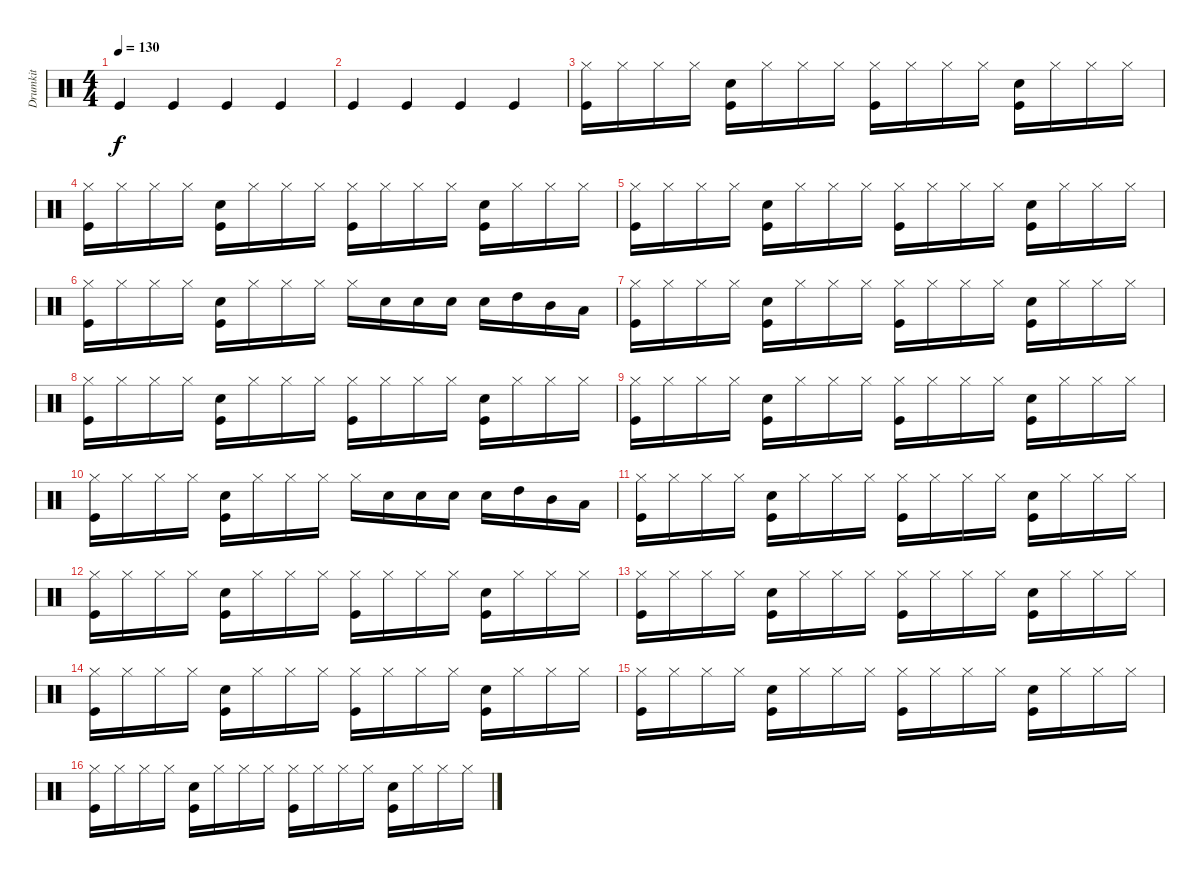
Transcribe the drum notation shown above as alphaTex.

\track ("Drumkit" "Drumkit") {instrument percussion}
\staff {score}
\articulation defaults
\ts (4 4)
\tempo 130
\clef neutral
\ks c "Kick (hit)".4{dy f} "Kick (hit)".4 "Kick (hit)".4 "Kick (hit)".4
|
"Kick (hit)".4 "Kick (hit)".4 "Kick (hit)".4 "Kick (hit)".4 |
("Hi-Hat (closed)" "Kick (hit)").16 "Hi-Hat (closed)".16 "Hi-Hat (closed)".16 "Hi-Hat (closed)".16 ("Snare (hit) 2" "Kick (hit)").16 "Hi-Hat (closed)".16 "Hi-Hat (closed)".16 "Hi-Hat (closed)".16 ("Hi-Hat (closed)" "Kick (hit)").16 "Hi-Hat (closed)".16 "Hi-Hat (closed)".16 "Hi-Hat (closed)".16 ("Snare (hit) 2" "Kick (hit)").16 "Hi-Hat (closed)".16 "Hi-Hat (closed)".16 "Hi-Hat (closed)".16 |
("Hi-Hat (closed)" "Kick (hit)").16 "Hi-Hat (closed)".16 "Hi-Hat (closed)".16 "Hi-Hat (closed)".16 ("Snare (hit) 2" "Kick (hit)").16 "Hi-Hat (closed)".16 "Hi-Hat (closed)".16 "Hi-Hat (closed)".16 ("Hi-Hat (closed)" "Kick (hit)").16 "Hi-Hat (closed)".16 "Hi-Hat (closed)".16 "Hi-Hat (closed)".16 ("Snare (hit) 2" "Kick (hit)").16 "Hi-Hat (closed)".16 "Hi-Hat (closed)".16 "Hi-Hat (closed)".16 |
("Hi-Hat (closed)" "Kick (hit)").16 "Hi-Hat (closed)".16 "Hi-Hat (closed)".16 "Hi-Hat (closed)".16 ("Snare (hit) 2" "Kick (hit)").16 "Hi-Hat (closed)".16 "Hi-Hat (closed)".16 "Hi-Hat (closed)".16 ("Hi-Hat (closed)" "Kick (hit)").16 "Hi-Hat (closed)".16 "Hi-Hat (closed)".16 "Hi-Hat (closed)".16 ("Snare (hit) 2" "Kick (hit)").16 "Hi-Hat (closed)".16 "Hi-Hat (closed)".16 "Hi-Hat (closed)".16 |
("Hi-Hat (closed)" "Kick (hit)").16 "Hi-Hat (closed)".16 "Hi-Hat (closed)".16 "Hi-Hat (closed)".16 ("Snare (hit) 2" "Kick (hit)").16 "Hi-Hat (closed)".16 "Hi-Hat (closed)".16 "Hi-Hat (closed)".16 "Hi-Hat (closed)".16 "Snare (hit) 2".16 "Snare (hit) 2".16 "Snare (hit) 2".16 "Snare (hit) 2".16 "High Tom (hit)".16 "Mid Tom (hit)".16 "Low Tom (hit)".16 |
("Hi-Hat (closed)" "Kick (hit)").16 "Hi-Hat (closed)".16 "Hi-Hat (closed)".16 "Hi-Hat (closed)".16 ("Snare (hit) 2" "Kick (hit)").16 "Hi-Hat (closed)".16 "Hi-Hat (closed)".16 "Hi-Hat (closed)".16 ("Hi-Hat (closed)" "Kick (hit)").16 "Hi-Hat (closed)".16 "Hi-Hat (closed)".16 "Hi-Hat (closed)".16 ("Snare (hit) 2" "Kick (hit)").16 "Hi-Hat (closed)".16 "Hi-Hat (closed)".16 "Hi-Hat (closed)".16 |
("Hi-Hat (closed)" "Kick (hit)").16 "Hi-Hat (closed)".16 "Hi-Hat (closed)".16 "Hi-Hat (closed)".16 ("Snare (hit) 2" "Kick (hit)").16 "Hi-Hat (closed)".16 "Hi-Hat (closed)".16 "Hi-Hat (closed)".16 ("Hi-Hat (closed)" "Kick (hit)").16 "Hi-Hat (closed)".16 "Hi-Hat (closed)".16 "Hi-Hat (closed)".16 ("Snare (hit) 2" "Kick (hit)").16 "Hi-Hat (closed)".16 "Hi-Hat (closed)".16 "Hi-Hat (closed)".16 |
("Hi-Hat (closed)" "Kick (hit)").16 "Hi-Hat (closed)".16 "Hi-Hat (closed)".16 "Hi-Hat (closed)".16 ("Snare (hit) 2" "Kick (hit)").16 "Hi-Hat (closed)".16 "Hi-Hat (closed)".16 "Hi-Hat (closed)".16 ("Hi-Hat (closed)" "Kick (hit)").16 "Hi-Hat (closed)".16 "Hi-Hat (closed)".16 "Hi-Hat (closed)".16 ("Snare (hit) 2" "Kick (hit)").16 "Hi-Hat (closed)".16 "Hi-Hat (closed)".16 "Hi-Hat (closed)".16 |
("Hi-Hat (closed)" "Kick (hit)").16 "Hi-Hat (closed)".16 "Hi-Hat (closed)".16 "Hi-Hat (closed)".16 ("Snare (hit) 2" "Kick (hit)").16 "Hi-Hat (closed)".16 "Hi-Hat (closed)".16 "Hi-Hat (closed)".16 "Hi-Hat (closed)".16 "Snare (hit) 2".16 "Snare (hit) 2".16 "Snare (hit) 2".16 "Snare (hit) 2".16 "High Tom (hit)".16 "Mid Tom (hit)".16 "Low Tom (hit)".16 |
("Hi-Hat (closed)" "Kick (hit)").16 "Hi-Hat (closed)".16 "Hi-Hat (closed)".16 "Hi-Hat (closed)".16 ("Snare (hit) 2" "Kick (hit)").16 "Hi-Hat (closed)".16 "Hi-Hat (closed)".16 "Hi-Hat (closed)".16 ("Hi-Hat (closed)" "Kick (hit)").16 "Hi-Hat (closed)".16 "Hi-Hat (closed)".16 "Hi-Hat (closed)".16 ("Snare (hit) 2" "Kick (hit)").16 "Hi-Hat (closed)".16 "Hi-Hat (closed)".16 "Hi-Hat (closed)".16 |
("Hi-Hat (closed)" "Kick (hit)").16 "Hi-Hat (closed)".16 "Hi-Hat (closed)".16 "Hi-Hat (closed)".16 ("Snare (hit) 2" "Kick (hit)").16 "Hi-Hat (closed)".16 "Hi-Hat (closed)".16 "Hi-Hat (closed)".16 ("Hi-Hat (closed)" "Kick (hit)").16 "Hi-Hat (closed)".16 "Hi-Hat (closed)".16 "Hi-Hat (closed)".16 ("Snare (hit) 2" "Kick (hit)").16 "Hi-Hat (closed)".16 "Hi-Hat (closed)".16 "Hi-Hat (closed)".16 |
("Hi-Hat (closed)" "Kick (hit)").16 "Hi-Hat (closed)".16 "Hi-Hat (closed)".16 "Hi-Hat (closed)".16 ("Snare (hit) 2" "Kick (hit)").16 "Hi-Hat (closed)".16 "Hi-Hat (closed)".16 "Hi-Hat (closed)".16 ("Hi-Hat (closed)" "Kick (hit)").16 "Hi-Hat (closed)".16 "Hi-Hat (closed)".16 "Hi-Hat (closed)".16 ("Snare (hit) 2" "Kick (hit)").16 "Hi-Hat (closed)".16 "Hi-Hat (closed)".16 "Hi-Hat (closed)".16 |
("Hi-Hat (closed)" "Kick (hit)").16 "Hi-Hat (closed)".16 "Hi-Hat (closed)".16 "Hi-Hat (closed)".16 ("Snare (hit) 2" "Kick (hit)").16 "Hi-Hat (closed)".16 "Hi-Hat (closed)".16 "Hi-Hat (closed)".16 ("Hi-Hat (closed)" "Kick (hit)").16 "Hi-Hat (closed)".16 "Hi-Hat (closed)".16 "Hi-Hat (closed)".16 ("Snare (hit) 2" "Kick (hit)").16 "Hi-Hat (closed)".16 "Hi-Hat (closed)".16 "Hi-Hat (closed)".16 |
("Hi-Hat (closed)" "Kick (hit)").16 "Hi-Hat (closed)".16 "Hi-Hat (closed)".16 "Hi-Hat (closed)".16 ("Snare (hit) 2" "Kick (hit)").16 "Hi-Hat (closed)".16 "Hi-Hat (closed)".16 "Hi-Hat (closed)".16 ("Hi-Hat (closed)" "Kick (hit)").16 "Hi-Hat (closed)".16 "Hi-Hat (closed)".16 "Hi-Hat (closed)".16 ("Snare (hit) 2" "Kick (hit)").16 "Hi-Hat (closed)".16 "Hi-Hat (closed)".16 "Hi-Hat (closed)".16 |
("Hi-Hat (closed)" "Kick (hit)").16 "Hi-Hat (closed)".16 "Hi-Hat (closed)".16 "Hi-Hat (closed)".16 ("Snare (hit) 2" "Kick (hit)").16 "Hi-Hat (closed)".16 "Hi-Hat (closed)".16 "Hi-Hat (closed)".16 ("Hi-Hat (closed)" "Kick (hit)").16 "Hi-Hat (closed)".16 "Hi-Hat (closed)".16 "Hi-Hat (closed)".16 ("Snare (hit) 2" "Kick (hit)").16 "Hi-Hat (closed)".16 "Hi-Hat (closed)".16 "Hi-Hat (closed)".16
